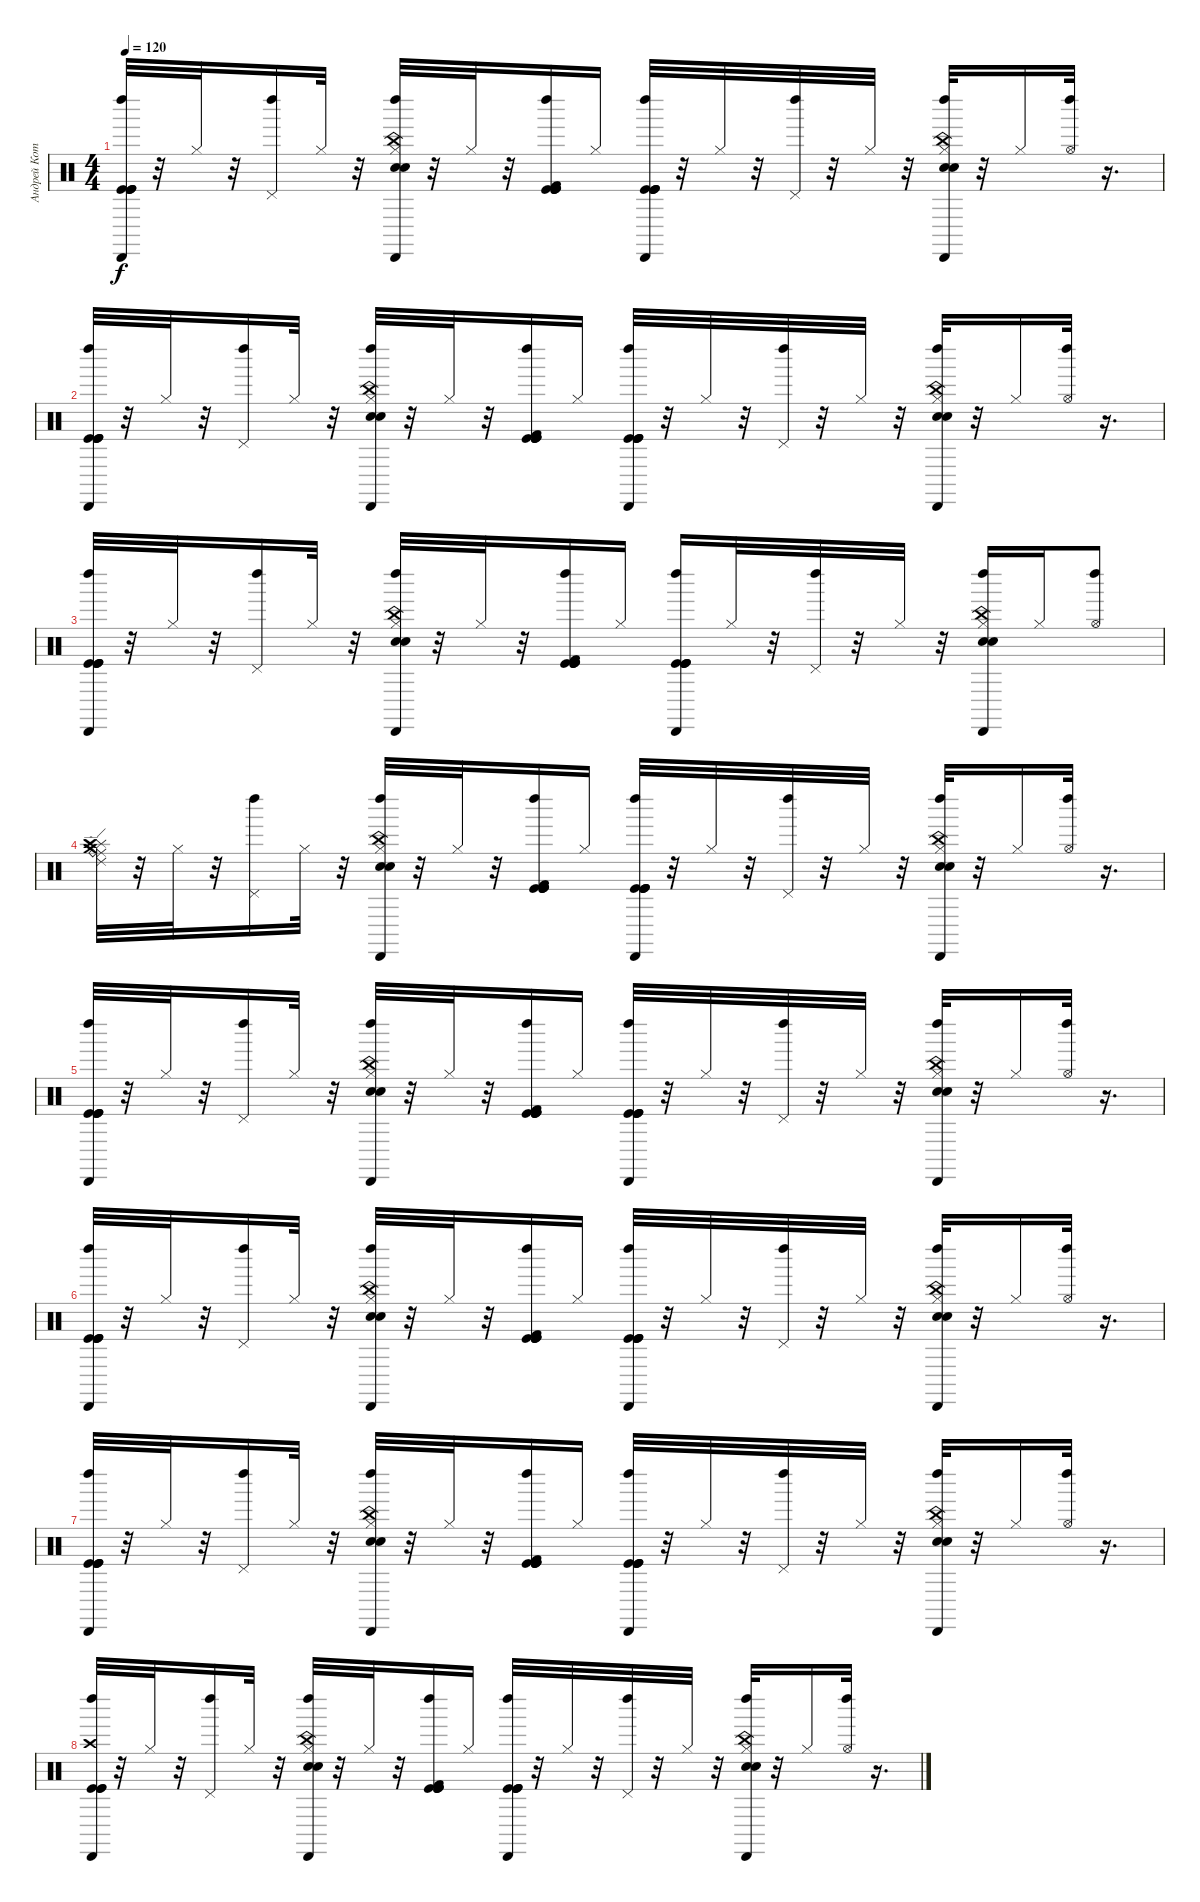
\track ("Андрей Котов " "Андрей Кот") {instrument percussion}
\staff {score}
\articulation defaults
\ts (4 4)
\tempo 120
\clef neutral
\ks c
("Cabasa (hit)" "Left Maraca (hit)" "Kick (hit)" "Kick (hit)" "Kick (hit)" "Kick (hit)").32{dy f} r.32 "Hi-Hat (closed)".32 r.32 ("Left Maraca (hit)" "Pedal Hi-Hat (hit)").16 "Hi-Hat (closed)".32 r.32 ("Cabasa (hit)" "Left Maraca (hit)" "China (hit)" "Electric Snare (hit)" "Hand Clap (hit)" "Hi-Hat (closed)").32 r.32 "Hi-Hat (closed)".32 r.32 ("Left Maraca (hit)" "Kick (hit)" "Kick (hit)" "Kick (hit)" "Kick (hit)" "Kick (hit) 2").16 "Hi-Hat (closed)".16 ("Cabasa (hit)" "Left Maraca (hit)" "Kick (hit)" "Kick (hit)" "Kick (hit)" "Kick (hit)").32 r.32 "Hi-Hat (closed)".32 r.32 ("Left Maraca (hit)" "Pedal Hi-Hat (hit)").32 r.32 "Hi-Hat (closed)".32 r.32 ("Cabasa (hit)" "Left Maraca (hit)" "China (hit)" "Electric Snare (hit)" "Hand Clap (hit)" "Hi-Hat (closed)").32 r.32 "Hi-Hat (closed)".16 ("Left Maraca (hit)" "Hi-Hat (open)").32 r.16{d} |
("Cabasa (hit)" "Left Maraca (hit)" "Kick (hit)" "Kick (hit)" "Kick (hit)" "Kick (hit)").32 r.32 "Hi-Hat (closed)".32 r.32 ("Left Maraca (hit)" "Pedal Hi-Hat (hit)").16 "Hi-Hat (closed)".32 r.32 ("Cabasa (hit)" "Left Maraca (hit)" "China (hit)" "Electric Snare (hit)" "Hand Clap (hit)" "Hi-Hat (closed)").32 r.32 "Hi-Hat (closed)".32 r.32 ("Left Maraca (hit)" "Kick (hit)" "Kick (hit)" "Kick (hit)" "Kick (hit)" "Kick (hit) 2").16 "Hi-Hat (closed)".16 ("Cabasa (hit)" "Left Maraca (hit)" "Kick (hit)" "Kick (hit)" "Kick (hit)" "Kick (hit)").32 r.32 "Hi-Hat (closed)".32 r.32 ("Left Maraca (hit)" "Pedal Hi-Hat (hit)").32 r.32 "Hi-Hat (closed)".32 r.32 ("Cabasa (hit)" "Left Maraca (hit)" "China (hit)" "Electric Snare (hit)" "Hand Clap (hit)" "Hi-Hat (closed)").32 r.32 "Hi-Hat (closed)".16 ("Left Maraca (hit)" "Hi-Hat (open)").32 r.16{d} |
("Cabasa (hit)" "Left Maraca (hit)" "Kick (hit)" "Kick (hit)" "Kick (hit)" "Kick (hit)").32 r.32 "Hi-Hat (closed)".32 r.32 ("Left Maraca (hit)" "Pedal Hi-Hat (hit)").16 "Hi-Hat (closed)".32 r.32 ("Cabasa (hit)" "Left Maraca (hit)" "China (hit)" "Electric Snare (hit)" "Hand Clap (hit)" "Hi-Hat (closed)").32 r.32 "Hi-Hat (closed)".32 r.32 ("Left Maraca (hit)" "Kick (hit)" "Kick (hit)" "Kick (hit)" "Kick (hit)" "Kick (hit) 2").16 "Hi-Hat (closed)".16 ("Cabasa (hit)" "Left Maraca (hit)" "Kick (hit)" "Kick (hit)" "Kick (hit)" "Kick (hit)").16 "Hi-Hat (closed)".32 r.32 ("Left Maraca (hit)" "Pedal Hi-Hat (hit)").32 r.32 "Hi-Hat (closed)".32 r.32 ("Cabasa (hit)" "Left Maraca (hit)" "China (hit)" "Electric Snare (hit)" "Hand Clap (hit)" "Hi-Hat (closed)").16 "Hi-Hat (closed)".16 ("Left Maraca (hit)" "Hi-Hat (open)").8 |
("Ride (middle)" "Ride (bell)" "Ride (edge) 2" "Splash (hit)" "Crash medium (hit)" "Crash high (hit)").32 r.32 "Hi-Hat (closed)".32 r.32 ("Left Maraca (hit)" "Pedal Hi-Hat (hit)").16 "Hi-Hat (closed)".32 r.32 ("Cabasa (hit)" "Left Maraca (hit)" "China (hit)" "Electric Snare (hit)" "Hand Clap (hit)" "Hi-Hat (closed)").32 r.32 "Hi-Hat (closed)".32 r.32 ("Left Maraca (hit)" "Kick (hit)" "Kick (hit)" "Kick (hit)" "Kick (hit)" "Kick (hit) 2").16 "Hi-Hat (closed)".16 ("Cabasa (hit)" "Left Maraca (hit)" "Kick (hit)" "Kick (hit)" "Kick (hit)" "Kick (hit)").32 r.32 "Hi-Hat (closed)".32 r.32 ("Left Maraca (hit)" "Pedal Hi-Hat (hit)").32 r.32 "Hi-Hat (closed)".32 r.32 ("Cabasa (hit)" "Left Maraca (hit)" "China (hit)" "Electric Snare (hit)" "Hand Clap (hit)" "Hi-Hat (closed)").32 r.32 "Hi-Hat (closed)".16 ("Left Maraca (hit)" "Hi-Hat (open)").32 r.16{d} |
("Cabasa (hit)" "Left Maraca (hit)" "Kick (hit)" "Kick (hit)" "Kick (hit)" "Kick (hit)").32 r.32 "Hi-Hat (closed)".32 r.32 ("Left Maraca (hit)" "Pedal Hi-Hat (hit)").16 "Hi-Hat (closed)".32 r.32 ("Cabasa (hit)" "Left Maraca (hit)" "China (hit)" "Electric Snare (hit)" "Hand Clap (hit)" "Hi-Hat (closed)").32 r.32 "Hi-Hat (closed)".32 r.32 ("Left Maraca (hit)" "Kick (hit)" "Kick (hit)" "Kick (hit)" "Kick (hit)" "Kick (hit) 2").16 "Hi-Hat (closed)".16 ("Cabasa (hit)" "Left Maraca (hit)" "Kick (hit)" "Kick (hit)" "Kick (hit)" "Kick (hit)").32 r.32 "Hi-Hat (closed)".32 r.32 ("Left Maraca (hit)" "Pedal Hi-Hat (hit)").32 r.32 "Hi-Hat (closed)".32 r.32 ("Cabasa (hit)" "Left Maraca (hit)" "China (hit)" "Electric Snare (hit)" "Hand Clap (hit)" "Hi-Hat (closed)").32 r.32 "Hi-Hat (closed)".16 ("Left Maraca (hit)" "Hi-Hat (open)").32 r.16{d} |
("Cabasa (hit)" "Left Maraca (hit)" "Kick (hit)" "Kick (hit)" "Kick (hit)" "Kick (hit)").32 r.32 "Hi-Hat (closed)".32 r.32 ("Left Maraca (hit)" "Pedal Hi-Hat (hit)").16 "Hi-Hat (closed)".32 r.32 ("Cabasa (hit)" "Left Maraca (hit)" "China (hit)" "Electric Snare (hit)" "Hand Clap (hit)" "Hi-Hat (closed)").32 r.32 "Hi-Hat (closed)".32 r.32 ("Left Maraca (hit)" "Kick (hit)" "Kick (hit)" "Kick (hit)" "Kick (hit)" "Kick (hit) 2").16 "Hi-Hat (closed)".16 ("Cabasa (hit)" "Left Maraca (hit)" "Kick (hit)" "Kick (hit)" "Kick (hit)" "Kick (hit)").32 r.32 "Hi-Hat (closed)".32 r.32 ("Left Maraca (hit)" "Pedal Hi-Hat (hit)").32 r.32 "Hi-Hat (closed)".32 r.32 ("Cabasa (hit)" "Left Maraca (hit)" "China (hit)" "Electric Snare (hit)" "Hand Clap (hit)" "Hi-Hat (closed)").32 r.32 "Hi-Hat (closed)".16 ("Left Maraca (hit)" "Hi-Hat (open)").32 r.16{d} |
("Cabasa (hit)" "Left Maraca (hit)" "Kick (hit)" "Kick (hit)" "Kick (hit)" "Kick (hit)").32 r.32 "Hi-Hat (closed)".32 r.32 ("Left Maraca (hit)" "Pedal Hi-Hat (hit)").16 "Hi-Hat (closed)".32 r.32 ("Cabasa (hit)" "Left Maraca (hit)" "China (hit)" "Electric Snare (hit)" "Hand Clap (hit)" "Hi-Hat (closed)").32 r.32 "Hi-Hat (closed)".32 r.32 ("Left Maraca (hit)" "Kick (hit)" "Kick (hit)" "Kick (hit)" "Kick (hit)" "Kick (hit) 2").16 "Hi-Hat (closed)".16 ("Cabasa (hit)" "Left Maraca (hit)" "Kick (hit)" "Kick (hit)" "Kick (hit)" "Kick (hit)").32 r.32 "Hi-Hat (closed)".32 r.32 ("Left Maraca (hit)" "Pedal Hi-Hat (hit)").32 r.32 "Hi-Hat (closed)".32 r.32 ("Cabasa (hit)" "Left Maraca (hit)" "China (hit)" "Electric Snare (hit)" "Hand Clap (hit)" "Hi-Hat (closed)").32 r.32 "Hi-Hat (closed)".16 ("Left Maraca (hit)" "Hi-Hat (open)").32 r.16{d} |
("Crash high (hit)" "Cabasa (hit)" "Left Maraca (hit)" "Kick (hit)" "Kick (hit)" "Kick (hit)").32 r.32 "Hi-Hat (closed)".32 r.32 ("Left Maraca (hit)" "Pedal Hi-Hat (hit)").16 "Hi-Hat (closed)".32 r.32 ("Cabasa (hit)" "Left Maraca (hit)" "China (hit)" "Electric Snare (hit)" "Hand Clap (hit)" "Hi-Hat (closed)").32 r.32 "Hi-Hat (closed)".32 r.32 ("Left Maraca (hit)" "Kick (hit)" "Kick (hit)" "Kick (hit)" "Kick (hit)" "Kick (hit) 2").16 "Hi-Hat (closed)".16 ("Cabasa (hit)" "Left Maraca (hit)" "Kick (hit)" "Kick (hit)" "Kick (hit)" "Kick (hit)").32 r.32 "Hi-Hat (closed)".32 r.32 ("Left Maraca (hit)" "Pedal Hi-Hat (hit)").32 r.32 "Hi-Hat (closed)".32 r.32 ("Cabasa (hit)" "Left Maraca (hit)" "China (hit)" "Electric Snare (hit)" "Hand Clap (hit)" "Hi-Hat (closed)").32 r.32 "Hi-Hat (closed)".16 ("Left Maraca (hit)" "Hi-Hat (open)").32 r.16{d}
